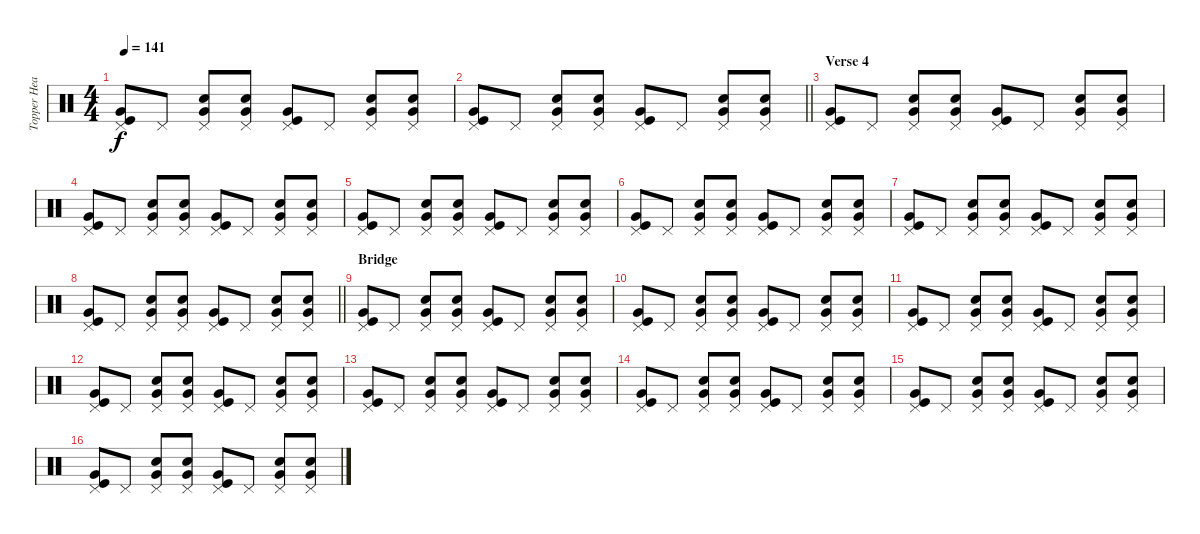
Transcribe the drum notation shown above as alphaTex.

\track ("Topper Headon - Drums" "Topper Hea") {instrument percussion}
\staff {score}
\articulation defaults
\ts (4 4)
\tempo 141
\clef neutral
\ks c
("Pedal Hi-Hat (hit)" "Very Low Tom (hit)" "Kick (hit)").8{dy f} "Pedal Hi-Hat (hit)".8 ("Pedal Hi-Hat (hit)" "Very Low Tom (hit)" "Snare (hit) 2").8 ("Pedal Hi-Hat (hit)" "Very Low Tom (hit)" "Snare (hit) 2").8 ("Pedal Hi-Hat (hit)" "Very Low Tom (hit)" "Kick (hit)").8 "Pedal Hi-Hat (hit)".8 ("Pedal Hi-Hat (hit)" "Very Low Tom (hit)" "Snare (hit) 2").8 ("Pedal Hi-Hat (hit)" "Very Low Tom (hit)" "Snare (hit) 2").8 |
\barLineRight lightlight
("Pedal Hi-Hat (hit)" "Very Low Tom (hit)" "Kick (hit)").8 "Pedal Hi-Hat (hit)".8 ("Pedal Hi-Hat (hit)" "Very Low Tom (hit)" "Snare (hit) 2").8 ("Pedal Hi-Hat (hit)" "Very Low Tom (hit)" "Snare (hit) 2").8 ("Pedal Hi-Hat (hit)" "Very Low Tom (hit)" "Kick (hit)").8 "Pedal Hi-Hat (hit)".8 ("Pedal Hi-Hat (hit)" "Very Low Tom (hit)" "Snare (hit) 2").8 ("Pedal Hi-Hat (hit)" "Very Low Tom (hit)" "Snare (hit) 2").8 |
\section ("" "Verse 4")
("Pedal Hi-Hat (hit)" "Very Low Tom (hit)" "Kick (hit)").8 "Pedal Hi-Hat (hit)".8 ("Pedal Hi-Hat (hit)" "Very Low Tom (hit)" "Snare (hit) 2").8 ("Pedal Hi-Hat (hit)" "Very Low Tom (hit)" "Snare (hit) 2").8 ("Pedal Hi-Hat (hit)" "Very Low Tom (hit)" "Kick (hit)").8 "Pedal Hi-Hat (hit)".8 ("Pedal Hi-Hat (hit)" "Very Low Tom (hit)" "Snare (hit) 2").8 ("Pedal Hi-Hat (hit)" "Very Low Tom (hit)" "Snare (hit) 2").8 |
("Pedal Hi-Hat (hit)" "Very Low Tom (hit)" "Kick (hit)").8 "Pedal Hi-Hat (hit)".8 ("Pedal Hi-Hat (hit)" "Very Low Tom (hit)" "Snare (hit) 2").8 ("Pedal Hi-Hat (hit)" "Very Low Tom (hit)" "Snare (hit) 2").8 ("Pedal Hi-Hat (hit)" "Very Low Tom (hit)" "Kick (hit)").8 "Pedal Hi-Hat (hit)".8 ("Pedal Hi-Hat (hit)" "Very Low Tom (hit)" "Snare (hit) 2").8 ("Pedal Hi-Hat (hit)" "Very Low Tom (hit)" "Snare (hit) 2").8 |
("Pedal Hi-Hat (hit)" "Very Low Tom (hit)" "Kick (hit)").8 "Pedal Hi-Hat (hit)".8 ("Pedal Hi-Hat (hit)" "Very Low Tom (hit)" "Snare (hit) 2").8 ("Pedal Hi-Hat (hit)" "Very Low Tom (hit)" "Snare (hit) 2").8 ("Pedal Hi-Hat (hit)" "Very Low Tom (hit)" "Kick (hit)").8 "Pedal Hi-Hat (hit)".8 ("Pedal Hi-Hat (hit)" "Very Low Tom (hit)" "Snare (hit) 2").8 ("Pedal Hi-Hat (hit)" "Very Low Tom (hit)" "Snare (hit) 2").8 |
("Pedal Hi-Hat (hit)" "Very Low Tom (hit)" "Kick (hit)").8 "Pedal Hi-Hat (hit)".8 ("Pedal Hi-Hat (hit)" "Very Low Tom (hit)" "Snare (hit) 2").8 ("Pedal Hi-Hat (hit)" "Very Low Tom (hit)" "Snare (hit) 2").8 ("Pedal Hi-Hat (hit)" "Very Low Tom (hit)" "Kick (hit)").8 "Pedal Hi-Hat (hit)".8 ("Pedal Hi-Hat (hit)" "Very Low Tom (hit)" "Snare (hit) 2").8 ("Pedal Hi-Hat (hit)" "Very Low Tom (hit)" "Snare (hit) 2").8 |
("Pedal Hi-Hat (hit)" "Very Low Tom (hit)" "Kick (hit)").8 "Pedal Hi-Hat (hit)".8 ("Pedal Hi-Hat (hit)" "Very Low Tom (hit)" "Snare (hit) 2").8 ("Pedal Hi-Hat (hit)" "Very Low Tom (hit)" "Snare (hit) 2").8 ("Pedal Hi-Hat (hit)" "Very Low Tom (hit)" "Kick (hit)").8 "Pedal Hi-Hat (hit)".8 ("Pedal Hi-Hat (hit)" "Very Low Tom (hit)" "Snare (hit) 2").8 ("Pedal Hi-Hat (hit)" "Very Low Tom (hit)" "Snare (hit) 2").8 |
\barLineRight lightlight
("Pedal Hi-Hat (hit)" "Very Low Tom (hit)" "Kick (hit)").8 "Pedal Hi-Hat (hit)".8 ("Pedal Hi-Hat (hit)" "Very Low Tom (hit)" "Snare (hit) 2").8 ("Pedal Hi-Hat (hit)" "Very Low Tom (hit)" "Snare (hit) 2").8 ("Pedal Hi-Hat (hit)" "Very Low Tom (hit)" "Kick (hit)").8 "Pedal Hi-Hat (hit)".8 ("Pedal Hi-Hat (hit)" "Very Low Tom (hit)" "Snare (hit) 2").8 ("Pedal Hi-Hat (hit)" "Very Low Tom (hit)" "Snare (hit) 2").8 |
\section ("" "Bridge")
("Pedal Hi-Hat (hit)" "Very Low Tom (hit)" "Kick (hit)").8 "Pedal Hi-Hat (hit)".8 ("Pedal Hi-Hat (hit)" "Very Low Tom (hit)" "Snare (hit) 2").8 ("Pedal Hi-Hat (hit)" "Very Low Tom (hit)" "Snare (hit) 2").8 ("Pedal Hi-Hat (hit)" "Very Low Tom (hit)" "Kick (hit)").8 "Pedal Hi-Hat (hit)".8 ("Pedal Hi-Hat (hit)" "Very Low Tom (hit)" "Snare (hit) 2").8 ("Pedal Hi-Hat (hit)" "Very Low Tom (hit)" "Snare (hit) 2").8 |
("Pedal Hi-Hat (hit)" "Very Low Tom (hit)" "Kick (hit)").8 "Pedal Hi-Hat (hit)".8 ("Pedal Hi-Hat (hit)" "Very Low Tom (hit)" "Snare (hit) 2").8 ("Pedal Hi-Hat (hit)" "Very Low Tom (hit)" "Snare (hit) 2").8 ("Pedal Hi-Hat (hit)" "Very Low Tom (hit)" "Kick (hit)").8 "Pedal Hi-Hat (hit)".8 ("Pedal Hi-Hat (hit)" "Very Low Tom (hit)" "Snare (hit) 2").8 ("Pedal Hi-Hat (hit)" "Very Low Tom (hit)" "Snare (hit) 2").8 |
("Pedal Hi-Hat (hit)" "Very Low Tom (hit)" "Kick (hit)").8 "Pedal Hi-Hat (hit)".8 ("Pedal Hi-Hat (hit)" "Very Low Tom (hit)" "Snare (hit) 2").8 ("Pedal Hi-Hat (hit)" "Very Low Tom (hit)" "Snare (hit) 2").8 ("Pedal Hi-Hat (hit)" "Very Low Tom (hit)" "Kick (hit)").8 "Pedal Hi-Hat (hit)".8 ("Pedal Hi-Hat (hit)" "Very Low Tom (hit)" "Snare (hit) 2").8 ("Pedal Hi-Hat (hit)" "Very Low Tom (hit)" "Snare (hit) 2").8 |
("Pedal Hi-Hat (hit)" "Very Low Tom (hit)" "Kick (hit)").8 "Pedal Hi-Hat (hit)".8 ("Pedal Hi-Hat (hit)" "Very Low Tom (hit)" "Snare (hit) 2").8 ("Pedal Hi-Hat (hit)" "Very Low Tom (hit)" "Snare (hit) 2").8 ("Pedal Hi-Hat (hit)" "Very Low Tom (hit)" "Kick (hit)").8 "Pedal Hi-Hat (hit)".8 ("Pedal Hi-Hat (hit)" "Very Low Tom (hit)" "Snare (hit) 2").8 ("Pedal Hi-Hat (hit)" "Very Low Tom (hit)" "Snare (hit) 2").8 |
("Pedal Hi-Hat (hit)" "Very Low Tom (hit)" "Kick (hit)").8 "Pedal Hi-Hat (hit)".8 ("Pedal Hi-Hat (hit)" "Very Low Tom (hit)" "Snare (hit) 2").8 ("Pedal Hi-Hat (hit)" "Very Low Tom (hit)" "Snare (hit) 2").8 ("Pedal Hi-Hat (hit)" "Very Low Tom (hit)" "Kick (hit)").8 "Pedal Hi-Hat (hit)".8 ("Pedal Hi-Hat (hit)" "Very Low Tom (hit)" "Snare (hit) 2").8 ("Pedal Hi-Hat (hit)" "Very Low Tom (hit)" "Snare (hit) 2").8 |
("Pedal Hi-Hat (hit)" "Very Low Tom (hit)" "Kick (hit)").8 "Pedal Hi-Hat (hit)".8 ("Pedal Hi-Hat (hit)" "Very Low Tom (hit)" "Snare (hit) 2").8 ("Pedal Hi-Hat (hit)" "Very Low Tom (hit)" "Snare (hit) 2").8 ("Pedal Hi-Hat (hit)" "Very Low Tom (hit)" "Kick (hit)").8 "Pedal Hi-Hat (hit)".8 ("Pedal Hi-Hat (hit)" "Very Low Tom (hit)" "Snare (hit) 2").8 ("Pedal Hi-Hat (hit)" "Very Low Tom (hit)" "Snare (hit) 2").8 |
("Pedal Hi-Hat (hit)" "Very Low Tom (hit)" "Kick (hit)").8 "Pedal Hi-Hat (hit)".8 ("Pedal Hi-Hat (hit)" "Very Low Tom (hit)" "Snare (hit) 2").8 ("Pedal Hi-Hat (hit)" "Very Low Tom (hit)" "Snare (hit) 2").8 ("Pedal Hi-Hat (hit)" "Very Low Tom (hit)" "Kick (hit)").8 "Pedal Hi-Hat (hit)".8 ("Pedal Hi-Hat (hit)" "Very Low Tom (hit)" "Snare (hit) 2").8 ("Pedal Hi-Hat (hit)" "Very Low Tom (hit)" "Snare (hit) 2").8 |
("Pedal Hi-Hat (hit)" "Very Low Tom (hit)" "Kick (hit)").8 "Pedal Hi-Hat (hit)".8 ("Pedal Hi-Hat (hit)" "Very Low Tom (hit)" "Snare (hit) 2").8 ("Pedal Hi-Hat (hit)" "Very Low Tom (hit)" "Snare (hit) 2").8 ("Pedal Hi-Hat (hit)" "Very Low Tom (hit)" "Kick (hit)").8 "Pedal Hi-Hat (hit)".8 ("Pedal Hi-Hat (hit)" "Very Low Tom (hit)" "Snare (hit) 2").8 ("Pedal Hi-Hat (hit)" "Very Low Tom (hit)" "Snare (hit) 2").8
